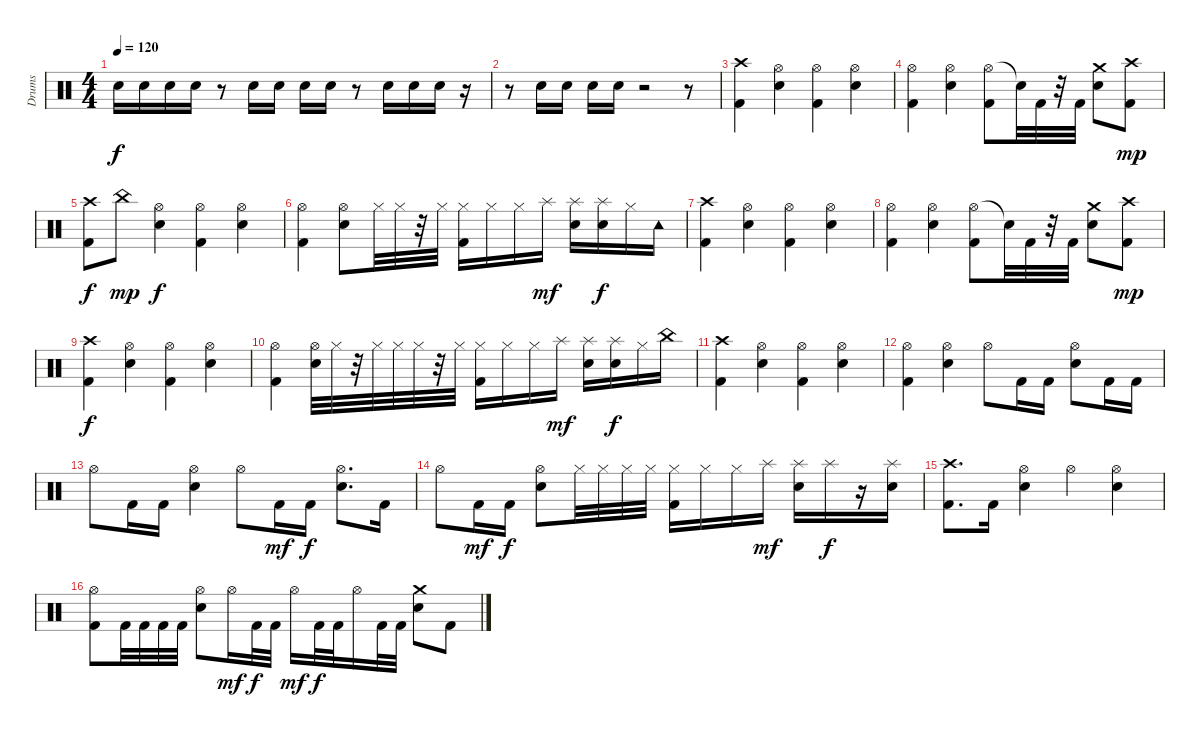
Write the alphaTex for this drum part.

\track ("Drums" "Drums") {instrument percussion}
\staff {score}
\articulation defaults
\ts (4 4)
\tempo 120
\tempo 110
\tempo 120
\clef neutral
\ks c "Electric Snare (hit)".16{dy f} "Electric Snare (hit)".16 "Electric Snare (hit)".16 "Electric Snare (hit)".16
r.8 "Electric Snare (hit)".16 "Electric Snare (hit)".16 "Electric Snare (hit)".16 "Electric Snare (hit)".16 r.8 "Electric Snare (hit)".16 "Electric Snare (hit)".16 "Electric Snare (hit)".16 r.16 |
r.8 "Electric Snare (hit)".16 "Electric Snare (hit)".16 "Electric Snare (hit)".16 "Electric Snare (hit)".16 r.2 r.8 |
("Kick (hit) 2" "Crash high (hit)").4 ("Electric Snare (hit)" "Hi-Hat (open)").4 ("Kick (hit) 2" "Hi-Hat (open)").4 ("Electric Snare (hit)" "Hi-Hat (open)").4 |
("Kick (hit) 2" "Hi-Hat (open)").4 ("Electric Snare (hit)" "Hi-Hat (open)").4 ("Hi-Hat (open)" "Kick (hit) 2").8 "Snare (hit)"{t}.32 "Kick (hit) 2".32 r.32 "Kick (hit) 2".32 ("Electric Snare (hit)" "Crash medium (hit)").8 ("Kick (hit) 2" "Crash high (hit)").8{dy mp} |
("Crash high (hit)" "Kick (hit) 2").8{dy f} "China (hit)".8{dy mp} ("Electric Snare (hit)" "Hi-Hat (open)").4{dy f} ("Kick (hit) 2" "Hi-Hat (open)").4 ("Electric Snare (hit)" "Hi-Hat (open)").4 |
("Kick (hit) 2" "Hi-Hat (open)").4 ("Electric Snare (hit)" "Hi-Hat (open)").8 "Hi-Hat (closed)".32 "Hi-Hat (closed)".32 r.32 "Hi-Hat (closed)".32 ("Kick (hit) 2" "Hi-Hat (closed)").16 "Hi-Hat (closed)".16 "Hi-Hat (closed)".16 "Splash (hit)".16{dy mf} ("Splash (hit)" "Electric Snare (hit)").16 ("Electric Snare (hit)" "Splash (hit)").16{dy f} "Hi-Hat (closed)".16 "Tambourine (hit)".16 |
("Crash high (hit)" "Kick (hit) 2").4 ("Electric Snare (hit)" "Hi-Hat (open)").4 ("Kick (hit) 2" "Hi-Hat (open)").4 ("Electric Snare (hit)" "Hi-Hat (open)").4 |
("Kick (hit) 2" "Hi-Hat (open)").4 ("Electric Snare (hit)" "Hi-Hat (open)").4 ("Hi-Hat (open)" "Kick (hit) 2").8 "Snare (hit)"{t}.32 "Kick (hit) 2".32 r.32 "Kick (hit) 2".32 ("Electric Snare (hit)" "Crash medium (hit)").8 ("Kick (hit) 2" "Crash high (hit)").8{dy mp} |
("Kick (hit) 2" "Crash high (hit)").4{dy f} ("Electric Snare (hit)" "Hi-Hat (open)").4 ("Kick (hit) 2" "Hi-Hat (open)").4 ("Electric Snare (hit)" "Hi-Hat (open)").4 |
("Kick (hit) 2" "Hi-Hat (open)").4 ("Electric Snare (hit)" "Hi-Hat (open)").32 "Hi-Hat (closed)".32 r.32 "Hi-Hat (closed)".32 "Hi-Hat (closed)".32 "Hi-Hat (closed)".32 r.32 "Hi-Hat (closed)".32 ("Kick (hit) 2" "Hi-Hat (closed)").16 "Hi-Hat (closed)".16 "Hi-Hat (closed)".16 "Splash (hit)".16{dy mf} ("Splash (hit)" "Electric Snare (hit)").16 ("Electric Snare (hit)" "Splash (hit)").16{dy f} "Hi-Hat (closed)".16 "China (hit)".16 |
("Crash high (hit)" "Kick (hit) 2").4 ("Electric Snare (hit)" "Hi-Hat (open)").4 ("Kick (hit) 2" "Hi-Hat (open)").4 ("Electric Snare (hit)" "Hi-Hat (open)").4 |
("Kick (hit) 2" "Hi-Hat (open)").4 ("Electric Snare (hit)" "Hi-Hat (open)").4 "Hi-Hat (open)".8 "Kick (hit) 2".16 "Kick (hit) 2".16 ("Electric Snare (hit)" "Hi-Hat (open)").8 "Kick (hit) 2".16 "Kick (hit) 2".16 |
"Hi-Hat (open)".8 "Kick (hit) 2".16 "Kick (hit) 2".16 ("Hi-Hat (open)" "Electric Snare (hit)").4 "Hi-Hat (open)".8 "Kick (hit) 2".16{dy mf} "Kick (hit) 2".16{dy f} ("Hi-Hat (open)" "Electric Snare (hit)").8{d} "Kick (hit) 2".16 |
"Hi-Hat (open)".8 "Kick (hit) 2".16{dy mf} "Kick (hit) 2".16{dy f} ("Electric Snare (hit)" "Hi-Hat (open)").8 "Hi-Hat (closed)".32 "Hi-Hat (closed)".32 "Hi-Hat (closed)".32 "Hi-Hat (closed)".32 ("Kick (hit) 2" "Hi-Hat (closed)").16 "Hi-Hat (closed)".16 "Hi-Hat (closed)".16 "Splash (hit)".16{dy mf} ("Splash (hit)" "Electric Snare (hit)").16 "Splash (hit)".16{dy f} r.16 ("Electric Snare (hit)" "Splash (hit)").16 |
("Crash high (hit)" "Kick (hit) 2").8{d} "Kick (hit) 2".16 ("Electric Snare (hit)" "Hi-Hat (open)").4 "Hi-Hat (open)".4 ("Electric Snare (hit)" "Hi-Hat (open)").4 |
("Hi-Hat (open)" "Kick (hit) 2").8 "Kick (hit) 2".32 "Kick (hit) 2".32 "Kick (hit) 2".32 "Kick (hit) 2".32 ("Electric Snare (hit)" "Hi-Hat (open)").8 "Hi-Hat (open)".16{dy mf} "Kick (hit) 2".32{dy f} "Kick (hit) 2".32 "Hi-Hat (open)".16{dy mf} "Kick (hit) 2".32{dy f} "Kick (hit) 2".32 "Hi-Hat (open)".16 "Kick (hit) 2".32 "Kick (hit) 2".32 ("Electric Snare (hit)" "Crash medium (hit)").8 "Kick (hit) 2".8
